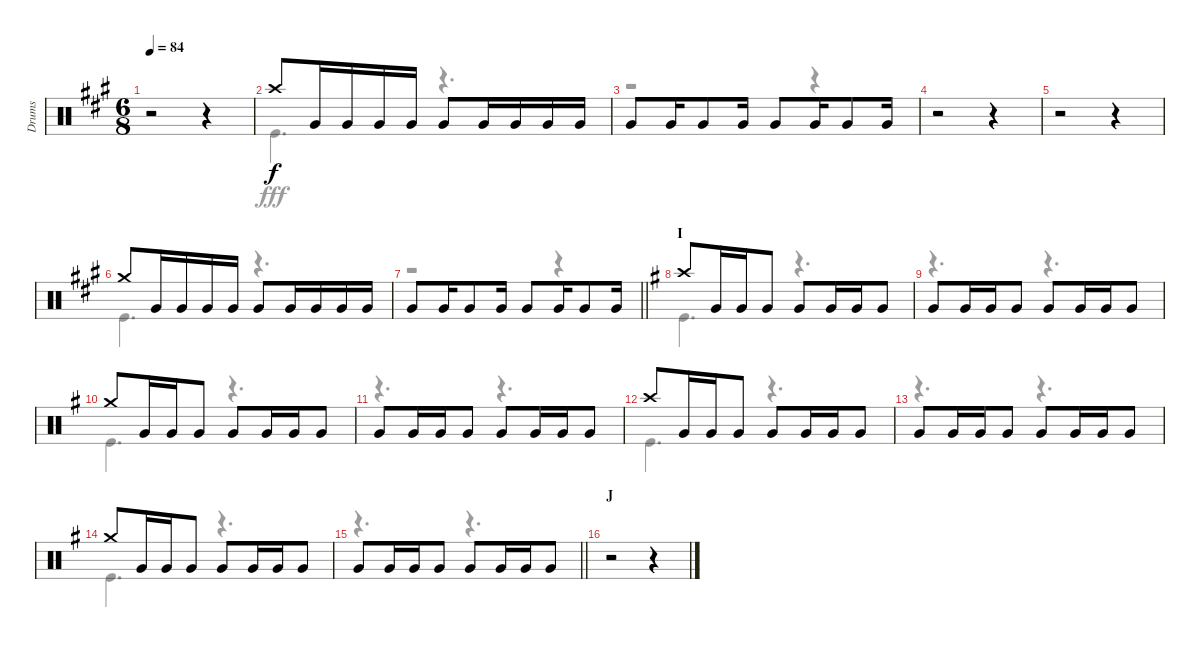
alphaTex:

\track ("Drums" "Drums") {instrument percussion}
\staff {score}
\articulation defaults
\voice
\ts (6 8)
\tempo 84
\clef neutral
\ks a
r.2{dy f} r.4 |
"Crash high (hit)".8 "Very Low Tom (hit)".16 "Very Low Tom (hit)".16 "Very Low Tom (hit)".16 "Very Low Tom (hit)".16 "Very Low Tom (hit)".8 "Very Low Tom (hit)".16 "Very Low Tom (hit)".16 "Very Low Tom (hit)".16 "Very Low Tom (hit)".16 |
"Very Low Tom (hit)".8 "Very Low Tom (hit)".16 "Very Low Tom (hit)".8 "Very Low Tom (hit)".16 "Very Low Tom (hit)".8 "Very Low Tom (hit)".16 "Very Low Tom (hit)".8 "Very Low Tom (hit)".16 |
r.2 r.4 |
r.2 r.4 |
"Crash medium (hit)".8 "Very Low Tom (hit)".16 "Very Low Tom (hit)".16 "Very Low Tom (hit)".16 "Very Low Tom (hit)".16 "Very Low Tom (hit)".8 "Very Low Tom (hit)".16 "Very Low Tom (hit)".16 "Very Low Tom (hit)".16 "Very Low Tom (hit)".16 |
\barLineRight lightlight "Very Low Tom (hit)".8 "Very Low Tom (hit)".16 "Very Low Tom (hit)".8 "Very Low Tom (hit)".16 "Very Low Tom (hit)".8 "Very Low Tom (hit)".16 "Very Low Tom (hit)".8 "Very Low Tom (hit)".16
|
\section ("" "I")
\ks g "Crash high (hit)".8 "Very Low Tom (hit)".16 "Very Low Tom (hit)".16 "Very Low Tom (hit)".8 "Very Low Tom (hit)".8 "Very Low Tom (hit)".16 "Very Low Tom (hit)".16 "Very Low Tom (hit)".8
|
"Very Low Tom (hit)".8 "Very Low Tom (hit)".16 "Very Low Tom (hit)".16 "Very Low Tom (hit)".8 "Very Low Tom (hit)".8 "Very Low Tom (hit)".16 "Very Low Tom (hit)".16 "Very Low Tom (hit)".8 |
"Crash medium (hit)".8 "Very Low Tom (hit)".16 "Very Low Tom (hit)".16 "Very Low Tom (hit)".8 "Very Low Tom (hit)".8 "Very Low Tom (hit)".16 "Very Low Tom (hit)".16 "Very Low Tom (hit)".8 |
"Very Low Tom (hit)".8 "Very Low Tom (hit)".16 "Very Low Tom (hit)".16 "Very Low Tom (hit)".8 "Very Low Tom (hit)".8 "Very Low Tom (hit)".16 "Very Low Tom (hit)".16 "Very Low Tom (hit)".8 |
"Crash high (hit)".8 "Very Low Tom (hit)".16 "Very Low Tom (hit)".16 "Very Low Tom (hit)".8 "Very Low Tom (hit)".8 "Very Low Tom (hit)".16 "Very Low Tom (hit)".16 "Very Low Tom (hit)".8 |
"Very Low Tom (hit)".8 "Very Low Tom (hit)".16 "Very Low Tom (hit)".16 "Very Low Tom (hit)".8 "Very Low Tom (hit)".8 "Very Low Tom (hit)".16 "Very Low Tom (hit)".16 "Very Low Tom (hit)".8 |
"Crash medium (hit)".8 "Very Low Tom (hit)".16 "Very Low Tom (hit)".16 "Very Low Tom (hit)".8 "Very Low Tom (hit)".8 "Very Low Tom (hit)".16 "Very Low Tom (hit)".16 "Very Low Tom (hit)".8 |
\barLineRight lightlight "Very Low Tom (hit)".8 "Very Low Tom (hit)".16 "Very Low Tom (hit)".16 "Very Low Tom (hit)".8 "Very Low Tom (hit)".8 "Very Low Tom (hit)".16 "Very Low Tom (hit)".16 "Very Low Tom (hit)".8
|
\section ("" "J")
r.2 r.4
\voice
\clef neutral
\ottava regular
\simile none
\ks a
r.2{dy fff} r.4 |
"Kick (hit)".4{d} r.4{d} |
r.2 r.4 |
r.2 r.4 |
r.2 r.4 |
"Kick (hit)".4{d} r.4{d} |
\barLineRight lightlight
r.2 r.4 |
\ks g "Kick (hit)".4{d}
r.4{d} |
r.4{d} r.4{d} |
"Kick (hit)".4{d} r.4{d} |
r.4{d} r.4{d} |
"Kick (hit)".4{d} r.4{d} |
r.4{d} r.4{d} |
"Kick (hit)".4{d} r.4{d} |
\barLineRight lightlight
r.4{d} r.4{d} |
r.2 r.4
